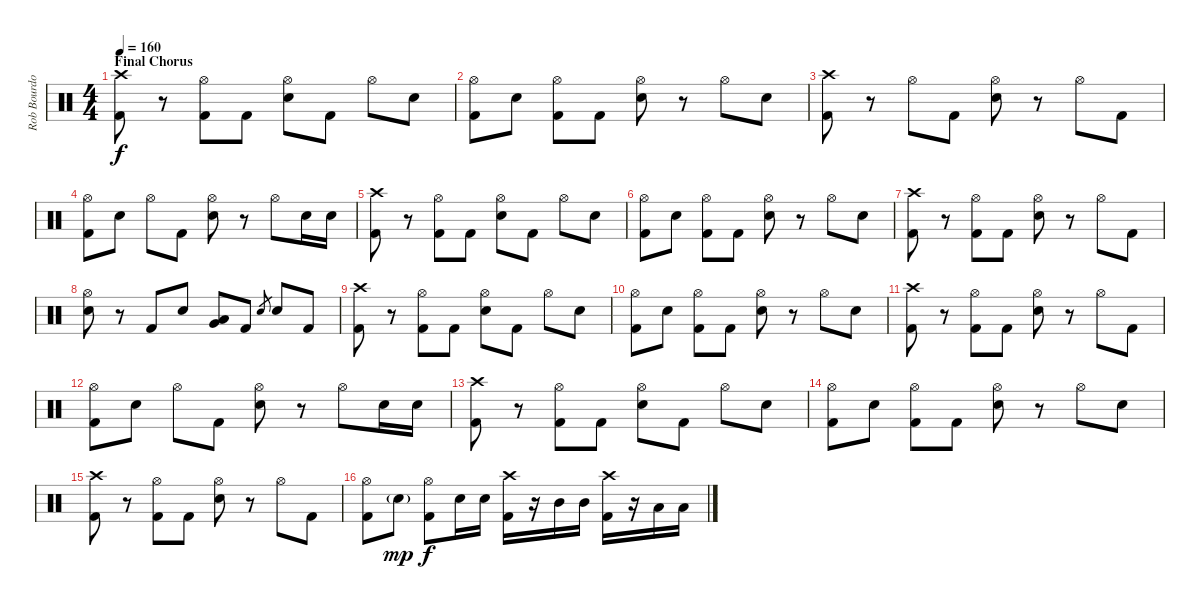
\track ("Rob Bourdon (Drums)" "Rob Bourdo") {instrument percussion}
\staff {score}
\articulation defaults
\ts (4 4)
\section ("" "Final Chorus")
\tempo 160
\clef neutral
\ks c
("Crash high (hit)" "Kick (hit) 2").8{dy f} r.8 ("Hi-Hat (open)" "Kick (hit) 2").8 "Kick (hit) 2".8 ("Hi-Hat (open)" "Electric Snare (hit)").8 "Kick (hit) 2".8 "Hi-Hat (open)".8 "Electric Snare (hit)".8 |
("Hi-Hat (open)" "Kick (hit) 2").8 "Electric Snare (hit)".8 ("Hi-Hat (open)" "Kick (hit) 2").8 "Kick (hit) 2".8 ("Hi-Hat (open)" "Electric Snare (hit)").8 r.8 "Hi-Hat (open)".8 "Electric Snare (hit)".8 |
("Crash high (hit)" "Kick (hit) 2").8 r.8 "Hi-Hat (open)".8 "Kick (hit) 2".8 ("Hi-Hat (open)" "Electric Snare (hit)").8 r.8 "Hi-Hat (open)".8 "Kick (hit) 2".8 |
("Hi-Hat (open)" "Kick (hit) 2").8 "Electric Snare (hit)".8 "Hi-Hat (open)".8 "Kick (hit) 2".8 ("Hi-Hat (open)" "Electric Snare (hit)").8 r.8 "Hi-Hat (open)".8 "Electric Snare (hit)".16 "Electric Snare (hit)".16 |
("Crash high (hit)" "Kick (hit) 2").8 r.8 ("Hi-Hat (open)" "Kick (hit) 2").8 "Kick (hit) 2".8 ("Hi-Hat (open)" "Electric Snare (hit)").8 "Kick (hit) 2".8 "Hi-Hat (open)".8 "Electric Snare (hit)".8 |
("Hi-Hat (open)" "Kick (hit) 2").8 "Electric Snare (hit)".8 ("Hi-Hat (open)" "Kick (hit) 2").8 "Kick (hit) 2".8 ("Hi-Hat (open)" "Electric Snare (hit)").8 r.8 "Hi-Hat (open)".8 "Electric Snare (hit)".8 |
("Crash high (hit)" "Kick (hit) 2").8 r.8 ("Hi-Hat (open)" "Kick (hit) 2").8 "Kick (hit) 2".8 ("Hi-Hat (open)" "Electric Snare (hit)").8 r.8 "Hi-Hat (open)".8 "Kick (hit) 2".8 |
("Hi-Hat (open)" "Electric Snare (hit)").8 r.8 "Kick (hit) 2".8 "Electric Snare (hit)".8 ("Low Tom (hit)" "Very Low Tom (hit)").8 "Kick (hit) 2".8 "Electric Snare (hit)".8{gr} "Electric Snare (hit)".8 "Kick (hit) 2".8 |
("Crash high (hit)" "Kick (hit) 2").8 r.8 ("Hi-Hat (open)" "Kick (hit) 2").8 "Kick (hit) 2".8 ("Hi-Hat (open)" "Electric Snare (hit)").8 "Kick (hit) 2".8 "Hi-Hat (open)".8 "Electric Snare (hit)".8 |
("Hi-Hat (open)" "Kick (hit) 2").8 "Electric Snare (hit)".8 ("Hi-Hat (open)" "Kick (hit) 2").8 "Kick (hit) 2".8 ("Hi-Hat (open)" "Electric Snare (hit)").8 r.8 "Hi-Hat (open)".8 "Electric Snare (hit)".8 |
("Crash high (hit)" "Kick (hit) 2").8 r.8 ("Hi-Hat (open)" "Kick (hit) 2").8 "Kick (hit) 2".8 ("Hi-Hat (open)" "Electric Snare (hit)").8 r.8 "Hi-Hat (open)".8 "Kick (hit) 2".8 |
("Hi-Hat (open)" "Kick (hit) 2").8 "Electric Snare (hit)".8 "Hi-Hat (open)".8 "Kick (hit) 2".8 ("Hi-Hat (open)" "Electric Snare (hit)").8 r.8 "Hi-Hat (open)".8 "Electric Snare (hit)".16 "Electric Snare (hit)".16 |
("Crash high (hit)" "Kick (hit) 2").8 r.8 ("Hi-Hat (open)" "Kick (hit) 2").8 "Kick (hit) 2".8 ("Hi-Hat (open)" "Electric Snare (hit)").8 "Kick (hit) 2".8 "Hi-Hat (open)".8 "Electric Snare (hit)".8 |
("Hi-Hat (open)" "Kick (hit) 2").8 "Electric Snare (hit)".8 ("Hi-Hat (open)" "Kick (hit) 2").8 "Kick (hit) 2".8 ("Hi-Hat (open)" "Electric Snare (hit)").8 r.8 "Hi-Hat (open)".8 "Electric Snare (hit)".8 |
("Crash high (hit)" "Kick (hit) 2").8 r.8 ("Hi-Hat (open)" "Kick (hit) 2").8 "Kick (hit) 2".8 ("Hi-Hat (open)" "Electric Snare (hit)").8 r.8 "Hi-Hat (open)".8 "Kick (hit) 2".8 |
("Hi-Hat (open)" "Kick (hit) 2").8 "Electric Snare (hit)"{g}.8{dy mp} ("Hi-Hat (open)" "Kick (hit) 2").8{dy f} "Electric Snare (hit)".16 "Electric Snare (hit)".16 ("Crash high (hit)" "Kick (hit) 2").16 r.16 "Mid Tom (hit)".16 "Mid Tom (hit)".16 ("Crash high (hit)" "Kick (hit) 2").16 r.16 "Low Tom (hit)".16 "Low Tom (hit)".16
